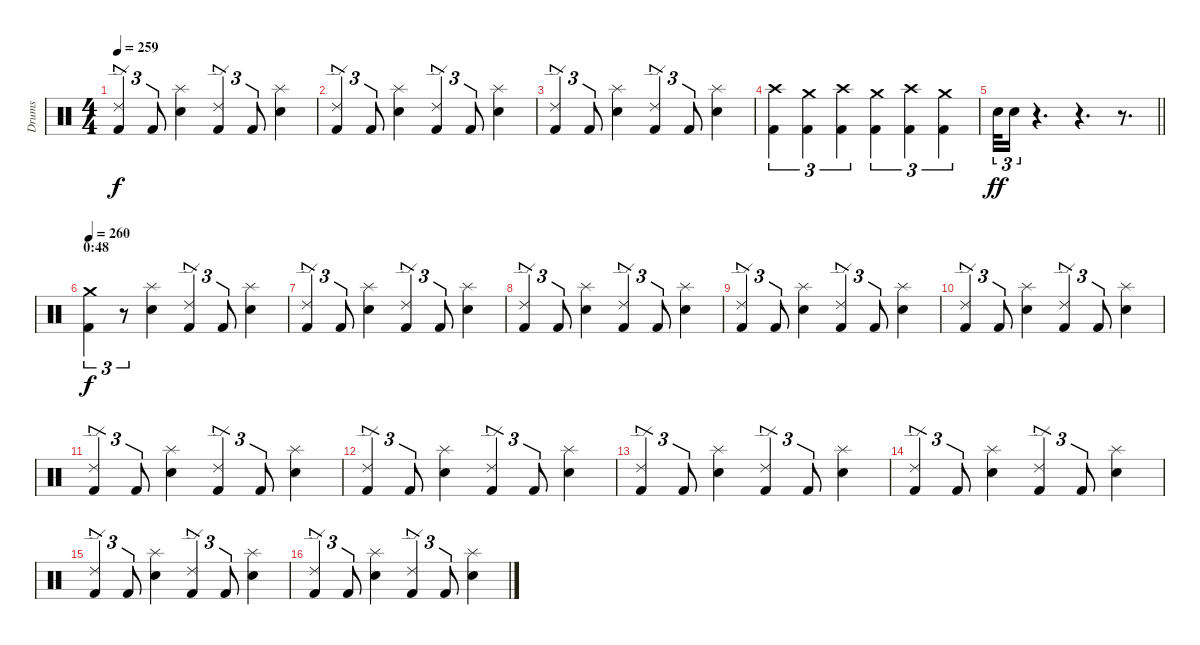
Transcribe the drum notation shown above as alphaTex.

\track ("Drums" "Drums") {instrument percussion}
\staff {score}
\articulation defaults
\ts (4 4)
\tempo 259
\clef neutral
\ks c
("Ride (edge) 2" "Kick (hit) 2").4{tu (3 2) dy f} "Kick (hit) 2".8{tu (3 2)} ("Splash (hit)" "Snare (hit) 2").4 ("Ride (edge) 2" "Kick (hit) 2").4{tu (3 2)} "Kick (hit) 2".8{tu (3 2)} ("Splash (hit)" "Snare (hit) 2").4 |
("Ride (edge) 2" "Kick (hit) 2").4{tu (3 2)} "Kick (hit) 2".8{tu (3 2)} ("Splash (hit)" "Snare (hit) 2").4 ("Ride (edge) 2" "Kick (hit) 2").4{tu (3 2)} "Kick (hit) 2".8{tu (3 2)} ("Splash (hit)" "Snare (hit) 2").4 |
("Ride (edge) 2" "Kick (hit) 2").4{tu (3 2)} "Kick (hit) 2".8{tu (3 2)} ("Splash (hit)" "Snare (hit) 2").4 ("Ride (edge) 2" "Kick (hit) 2").4{tu (3 2)} "Kick (hit) 2".8{tu (3 2)} ("Splash (hit)" "Snare (hit) 2").4 |
("Kick (hit) 2" "Crash high (hit)").4{tu (3 2)} ("Kick (hit) 2" "Crash medium (hit)").4{tu (3 2)} ("Kick (hit) 2" "Crash high (hit)").4{tu (3 2)} ("Kick (hit) 2" "Crash medium (hit)").4{tu (3 2)} ("Kick (hit) 2" "Crash high (hit)").4{tu (3 2)} ("Kick (hit) 2" "Crash medium (hit)").4{tu (3 2)} |
\barLineRight lightlight "Electric Snare (hit)".32{tu (3 2) dy ff} "Snare (hit) 2".16{tu (3 2)}
r.4{d} r.4{d} r.8{d} |
\section ("" "0:48")
\tempo 260
("Crash medium (hit)" "Kick (hit) 2").4{tu (3 2) dy f} r.8{tu (3 2)} ("Splash (hit)" "Snare (hit) 2").4 ("Ride (edge) 2" "Kick (hit) 2").4{tu (3 2)} "Kick (hit) 2".8{tu (3 2)} ("Splash (hit)" "Snare (hit) 2").4 |
("Ride (edge) 2" "Kick (hit) 2").4{tu (3 2)} "Kick (hit) 2".8{tu (3 2)} ("Splash (hit)" "Snare (hit) 2").4 ("Ride (edge) 2" "Kick (hit) 2").4{tu (3 2)} "Kick (hit) 2".8{tu (3 2)} ("Splash (hit)" "Snare (hit) 2").4 |
("Ride (edge) 2" "Kick (hit) 2").4{tu (3 2)} "Kick (hit) 2".8{tu (3 2)} ("Splash (hit)" "Snare (hit) 2").4 ("Ride (edge) 2" "Kick (hit) 2").4{tu (3 2)} "Kick (hit) 2".8{tu (3 2)} ("Splash (hit)" "Snare (hit) 2").4 |
("Ride (edge) 2" "Kick (hit) 2").4{tu (3 2)} "Kick (hit) 2".8{tu (3 2)} ("Splash (hit)" "Snare (hit) 2").4 ("Ride (edge) 2" "Kick (hit) 2").4{tu (3 2)} "Kick (hit) 2".8{tu (3 2)} ("Splash (hit)" "Snare (hit) 2").4 |
("Ride (edge) 2" "Kick (hit) 2").4{tu (3 2)} "Kick (hit) 2".8{tu (3 2)} ("Splash (hit)" "Snare (hit) 2").4 ("Ride (edge) 2" "Kick (hit) 2").4{tu (3 2)} "Kick (hit) 2".8{tu (3 2)} ("Splash (hit)" "Snare (hit) 2").4 |
("Ride (edge) 2" "Kick (hit) 2").4{tu (3 2)} "Kick (hit) 2".8{tu (3 2)} ("Splash (hit)" "Snare (hit) 2").4 ("Ride (edge) 2" "Kick (hit) 2").4{tu (3 2)} "Kick (hit) 2".8{tu (3 2)} ("Splash (hit)" "Snare (hit) 2").4 |
("Ride (edge) 2" "Kick (hit) 2").4{tu (3 2)} "Kick (hit) 2".8{tu (3 2)} ("Splash (hit)" "Snare (hit) 2").4 ("Ride (edge) 2" "Kick (hit) 2").4{tu (3 2)} "Kick (hit) 2".8{tu (3 2)} ("Splash (hit)" "Snare (hit) 2").4 |
("Ride (edge) 2" "Kick (hit) 2").4{tu (3 2)} "Kick (hit) 2".8{tu (3 2)} ("Splash (hit)" "Snare (hit) 2").4 ("Ride (edge) 2" "Kick (hit) 2").4{tu (3 2)} "Kick (hit) 2".8{tu (3 2)} ("Splash (hit)" "Snare (hit) 2").4 |
("Ride (edge) 2" "Kick (hit) 2").4{tu (3 2)} "Kick (hit) 2".8{tu (3 2)} ("Splash (hit)" "Snare (hit) 2").4 ("Ride (edge) 2" "Kick (hit) 2").4{tu (3 2)} "Kick (hit) 2".8{tu (3 2)} ("Splash (hit)" "Snare (hit) 2").4 |
("Ride (edge) 2" "Kick (hit) 2").4{tu (3 2)} "Kick (hit) 2".8{tu (3 2)} ("Splash (hit)" "Snare (hit) 2").4 ("Ride (edge) 2" "Kick (hit) 2").4{tu (3 2)} "Kick (hit) 2".8{tu (3 2)} ("Splash (hit)" "Snare (hit) 2").4 |
("Ride (edge) 2" "Kick (hit) 2").4{tu (3 2)} "Kick (hit) 2".8{tu (3 2)} ("Splash (hit)" "Snare (hit) 2").4 ("Ride (edge) 2" "Kick (hit) 2").4{tu (3 2)} "Kick (hit) 2".8{tu (3 2)} ("Splash (hit)" "Snare (hit) 2").4
